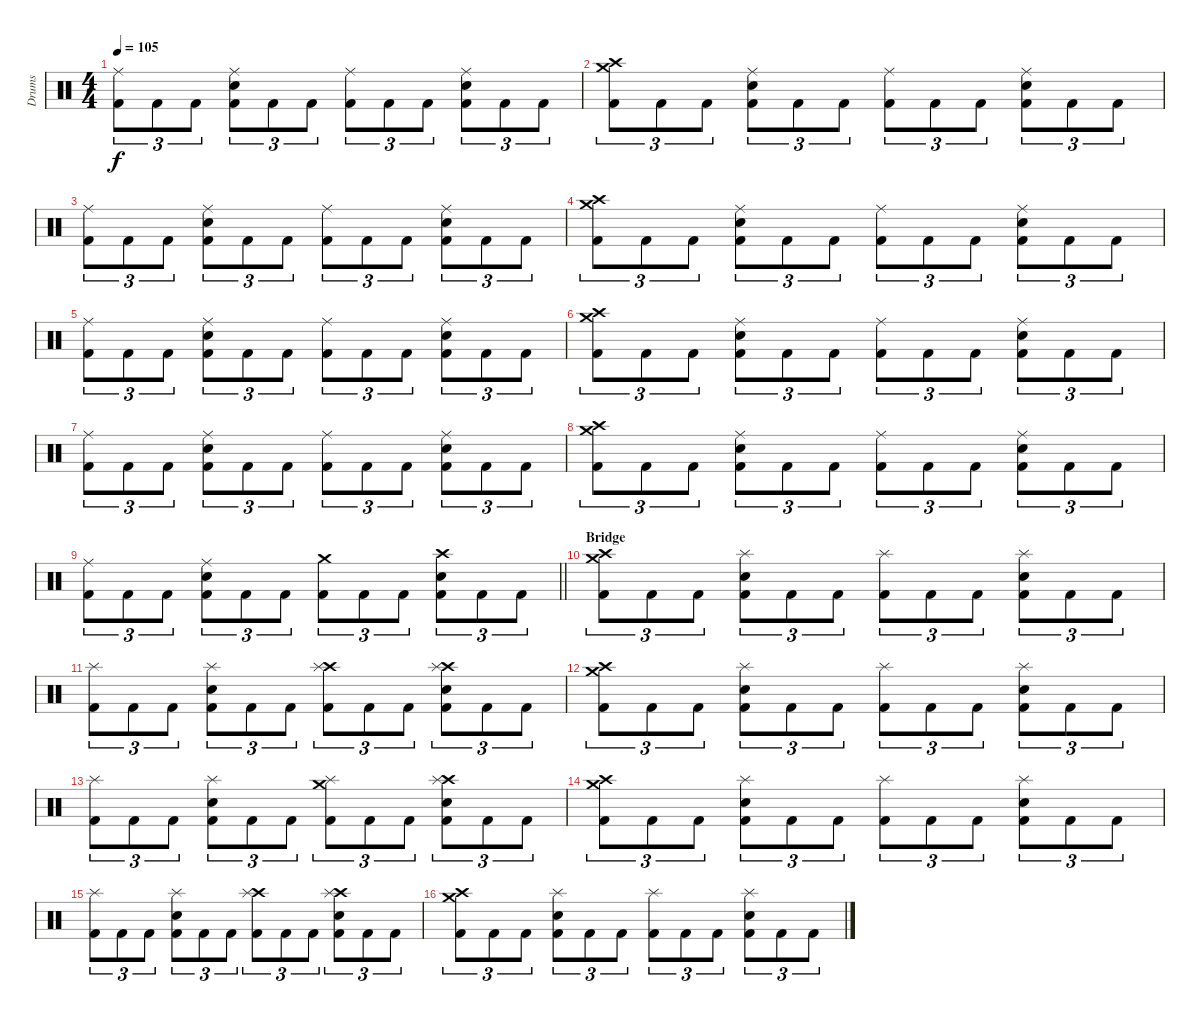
\track ("Drums" "Drums") {instrument percussion}
\staff {score}
\articulation defaults
\ts (4 4)
\tempo 105
\clef neutral
\ks c
("Ride (middle)" "Kick (hit) 2").8{tu (3 2) dy f} "Kick (hit) 2".8{tu (3 2)} "Kick (hit) 2".8{tu (3 2)} ("Ride (middle)" "Electric Snare (hit)" "Kick (hit) 2").8{tu (3 2)} "Kick (hit) 2".8{tu (3 2)} "Kick (hit) 2".8{tu (3 2)} ("Ride (middle)" "Kick (hit) 2").8{tu (3 2)} "Kick (hit) 2".8{tu (3 2)} "Kick (hit) 2".8{tu (3 2)} ("Ride (middle)" "Electric Snare (hit)" "Kick (hit) 2").8{tu (3 2)} "Kick (hit) 2".8{tu (3 2)} "Kick (hit) 2".8{tu (3 2)} |
("Crash medium (hit)" "Crash high (hit)" "Kick (hit) 2").8{tu (3 2)} "Kick (hit) 2".8{tu (3 2)} "Kick (hit) 2".8{tu (3 2)} ("Ride (middle)" "Electric Snare (hit)" "Kick (hit) 2").8{tu (3 2)} "Kick (hit) 2".8{tu (3 2)} "Kick (hit) 2".8{tu (3 2)} ("Ride (middle)" "Kick (hit) 2").8{tu (3 2)} "Kick (hit) 2".8{tu (3 2)} "Kick (hit) 2".8{tu (3 2)} ("Ride (middle)" "Electric Snare (hit)" "Kick (hit) 2").8{tu (3 2)} "Kick (hit) 2".8{tu (3 2)} "Kick (hit) 2".8{tu (3 2)} |
("Ride (middle)" "Kick (hit) 2").8{tu (3 2)} "Kick (hit) 2".8{tu (3 2)} "Kick (hit) 2".8{tu (3 2)} ("Ride (middle)" "Electric Snare (hit)" "Kick (hit) 2").8{tu (3 2)} "Kick (hit) 2".8{tu (3 2)} "Kick (hit) 2".8{tu (3 2)} ("Ride (middle)" "Kick (hit) 2").8{tu (3 2)} "Kick (hit) 2".8{tu (3 2)} "Kick (hit) 2".8{tu (3 2)} ("Ride (middle)" "Electric Snare (hit)" "Kick (hit) 2").8{tu (3 2)} "Kick (hit) 2".8{tu (3 2)} "Kick (hit) 2".8{tu (3 2)} |
("Crash medium (hit)" "Crash high (hit)" "Kick (hit) 2").8{tu (3 2)} "Kick (hit) 2".8{tu (3 2)} "Kick (hit) 2".8{tu (3 2)} ("Ride (middle)" "Electric Snare (hit)" "Kick (hit) 2").8{tu (3 2)} "Kick (hit) 2".8{tu (3 2)} "Kick (hit) 2".8{tu (3 2)} ("Ride (middle)" "Kick (hit) 2").8{tu (3 2)} "Kick (hit) 2".8{tu (3 2)} "Kick (hit) 2".8{tu (3 2)} ("Ride (middle)" "Electric Snare (hit)" "Kick (hit) 2").8{tu (3 2)} "Kick (hit) 2".8{tu (3 2)} "Kick (hit) 2".8{tu (3 2)} |
("Ride (middle)" "Kick (hit) 2").8{tu (3 2)} "Kick (hit) 2".8{tu (3 2)} "Kick (hit) 2".8{tu (3 2)} ("Ride (middle)" "Electric Snare (hit)" "Kick (hit) 2").8{tu (3 2)} "Kick (hit) 2".8{tu (3 2)} "Kick (hit) 2".8{tu (3 2)} ("Ride (middle)" "Kick (hit) 2").8{tu (3 2)} "Kick (hit) 2".8{tu (3 2)} "Kick (hit) 2".8{tu (3 2)} ("Ride (middle)" "Electric Snare (hit)" "Kick (hit) 2").8{tu (3 2)} "Kick (hit) 2".8{tu (3 2)} "Kick (hit) 2".8{tu (3 2)} |
("Crash medium (hit)" "Crash high (hit)" "Kick (hit) 2").8{tu (3 2)} "Kick (hit) 2".8{tu (3 2)} "Kick (hit) 2".8{tu (3 2)} ("Ride (middle)" "Electric Snare (hit)" "Kick (hit) 2").8{tu (3 2)} "Kick (hit) 2".8{tu (3 2)} "Kick (hit) 2".8{tu (3 2)} ("Ride (middle)" "Kick (hit) 2").8{tu (3 2)} "Kick (hit) 2".8{tu (3 2)} "Kick (hit) 2".8{tu (3 2)} ("Ride (middle)" "Electric Snare (hit)" "Kick (hit) 2").8{tu (3 2)} "Kick (hit) 2".8{tu (3 2)} "Kick (hit) 2".8{tu (3 2)} |
("Ride (middle)" "Kick (hit) 2").8{tu (3 2)} "Kick (hit) 2".8{tu (3 2)} "Kick (hit) 2".8{tu (3 2)} ("Ride (middle)" "Electric Snare (hit)" "Kick (hit) 2").8{tu (3 2)} "Kick (hit) 2".8{tu (3 2)} "Kick (hit) 2".8{tu (3 2)} ("Ride (middle)" "Kick (hit) 2").8{tu (3 2)} "Kick (hit) 2".8{tu (3 2)} "Kick (hit) 2".8{tu (3 2)} ("Ride (middle)" "Electric Snare (hit)" "Kick (hit) 2").8{tu (3 2)} "Kick (hit) 2".8{tu (3 2)} "Kick (hit) 2".8{tu (3 2)} |
("Crash medium (hit)" "Crash high (hit)" "Kick (hit) 2").8{tu (3 2)} "Kick (hit) 2".8{tu (3 2)} "Kick (hit) 2".8{tu (3 2)} ("Ride (middle)" "Electric Snare (hit)" "Kick (hit) 2").8{tu (3 2)} "Kick (hit) 2".8{tu (3 2)} "Kick (hit) 2".8{tu (3 2)} ("Ride (middle)" "Kick (hit) 2").8{tu (3 2)} "Kick (hit) 2".8{tu (3 2)} "Kick (hit) 2".8{tu (3 2)} ("Ride (middle)" "Electric Snare (hit)" "Kick (hit) 2").8{tu (3 2)} "Kick (hit) 2".8{tu (3 2)} "Kick (hit) 2".8{tu (3 2)} |
\barLineRight lightlight
("Ride (middle)" "Kick (hit) 2").8{tu (3 2)} "Kick (hit) 2".8{tu (3 2)} "Kick (hit) 2".8{tu (3 2)} ("Ride (middle)" "Electric Snare (hit)" "Kick (hit) 2").8{tu (3 2)} "Kick (hit) 2".8{tu (3 2)} "Kick (hit) 2".8{tu (3 2)} ("Crash medium (hit)" "Kick (hit) 2").8{tu (3 2)} "Kick (hit) 2".8{tu (3 2)} "Kick (hit) 2".8{tu (3 2)} ("Crash high (hit)" "Electric Snare (hit)" "Kick (hit) 2").8{tu (3 2)} "Kick (hit) 2".8{tu (3 2)} "Kick (hit) 2".8{tu (3 2)} |
\section ("" "Bridge")
("Crash high (hit)" "Crash medium (hit)" "Kick (hit) 2").8{tu (3 2)} "Kick (hit) 2".8{tu (3 2)} "Kick (hit) 2".8{tu (3 2)} ("Splash (hit)" "Electric Snare (hit)" "Kick (hit) 2").8{tu (3 2)} "Kick (hit) 2".8{tu (3 2)} "Kick (hit) 2".8{tu (3 2)} ("Splash (hit)" "Kick (hit) 2").8{tu (3 2)} "Kick (hit) 2".8{tu (3 2)} "Kick (hit) 2".8{tu (3 2)} ("Splash (hit)" "Electric Snare (hit)" "Kick (hit) 2").8{tu (3 2)} "Kick (hit) 2".8{tu (3 2)} "Kick (hit) 2".8{tu (3 2)} |
("Splash (hit)" "Kick (hit) 2").8{tu (3 2)} "Kick (hit) 2".8{tu (3 2)} "Kick (hit) 2".8{tu (3 2)} ("Splash (hit)" "Electric Snare (hit)" "Kick (hit) 2").8{tu (3 2)} "Kick (hit) 2".8{tu (3 2)} "Kick (hit) 2".8{tu (3 2)} ("Crash high (hit)" "Splash (hit)" "Kick (hit) 2").8{tu (3 2)} "Kick (hit) 2".8{tu (3 2)} "Kick (hit) 2".8{tu (3 2)} ("Crash high (hit)" "Splash (hit)" "Electric Snare (hit)" "Kick (hit) 2").8{tu (3 2)} "Kick (hit) 2".8{tu (3 2)} "Kick (hit) 2".8{tu (3 2)} |
("Crash high (hit)" "Crash medium (hit)" "Kick (hit) 2").8{tu (3 2)} "Kick (hit) 2".8{tu (3 2)} "Kick (hit) 2".8{tu (3 2)} ("Splash (hit)" "Electric Snare (hit)" "Kick (hit) 2").8{tu (3 2)} "Kick (hit) 2".8{tu (3 2)} "Kick (hit) 2".8{tu (3 2)} ("Splash (hit)" "Kick (hit) 2").8{tu (3 2)} "Kick (hit) 2".8{tu (3 2)} "Kick (hit) 2".8{tu (3 2)} ("Splash (hit)" "Electric Snare (hit)" "Kick (hit) 2").8{tu (3 2)} "Kick (hit) 2".8{tu (3 2)} "Kick (hit) 2".8{tu (3 2)} |
("Splash (hit)" "Kick (hit) 2").8{tu (3 2)} "Kick (hit) 2".8{tu (3 2)} "Kick (hit) 2".8{tu (3 2)} ("Splash (hit)" "Electric Snare (hit)" "Kick (hit) 2").8{tu (3 2)} "Kick (hit) 2".8{tu (3 2)} "Kick (hit) 2".8{tu (3 2)} ("Crash medium (hit)" "Splash (hit)" "Kick (hit) 2").8{tu (3 2)} "Kick (hit) 2".8{tu (3 2)} "Kick (hit) 2".8{tu (3 2)} ("Crash high (hit)" "Splash (hit)" "Electric Snare (hit)" "Kick (hit) 2").8{tu (3 2)} "Kick (hit) 2".8{tu (3 2)} "Kick (hit) 2".8{tu (3 2)} |
("Crash high (hit)" "Crash medium (hit)" "Kick (hit) 2").8{tu (3 2)} "Kick (hit) 2".8{tu (3 2)} "Kick (hit) 2".8{tu (3 2)} ("Splash (hit)" "Electric Snare (hit)" "Kick (hit) 2").8{tu (3 2)} "Kick (hit) 2".8{tu (3 2)} "Kick (hit) 2".8{tu (3 2)} ("Splash (hit)" "Kick (hit) 2").8{tu (3 2)} "Kick (hit) 2".8{tu (3 2)} "Kick (hit) 2".8{tu (3 2)} ("Splash (hit)" "Electric Snare (hit)" "Kick (hit) 2").8{tu (3 2)} "Kick (hit) 2".8{tu (3 2)} "Kick (hit) 2".8{tu (3 2)} |
("Splash (hit)" "Kick (hit) 2").8{tu (3 2)} "Kick (hit) 2".8{tu (3 2)} "Kick (hit) 2".8{tu (3 2)} ("Splash (hit)" "Electric Snare (hit)" "Kick (hit) 2").8{tu (3 2)} "Kick (hit) 2".8{tu (3 2)} "Kick (hit) 2".8{tu (3 2)} ("Crash high (hit)" "Splash (hit)" "Kick (hit) 2").8{tu (3 2)} "Kick (hit) 2".8{tu (3 2)} "Kick (hit) 2".8{tu (3 2)} ("Crash high (hit)" "Splash (hit)" "Electric Snare (hit)" "Kick (hit) 2").8{tu (3 2)} "Kick (hit) 2".8{tu (3 2)} "Kick (hit) 2".8{tu (3 2)} |
("Crash high (hit)" "Crash medium (hit)" "Kick (hit) 2").8{tu (3 2)} "Kick (hit) 2".8{tu (3 2)} "Kick (hit) 2".8{tu (3 2)} ("Splash (hit)" "Electric Snare (hit)" "Kick (hit) 2").8{tu (3 2)} "Kick (hit) 2".8{tu (3 2)} "Kick (hit) 2".8{tu (3 2)} ("Splash (hit)" "Kick (hit) 2").8{tu (3 2)} "Kick (hit) 2".8{tu (3 2)} "Kick (hit) 2".8{tu (3 2)} ("Splash (hit)" "Electric Snare (hit)" "Kick (hit) 2").8{tu (3 2)} "Kick (hit) 2".8{tu (3 2)} "Kick (hit) 2".8{tu (3 2)}
